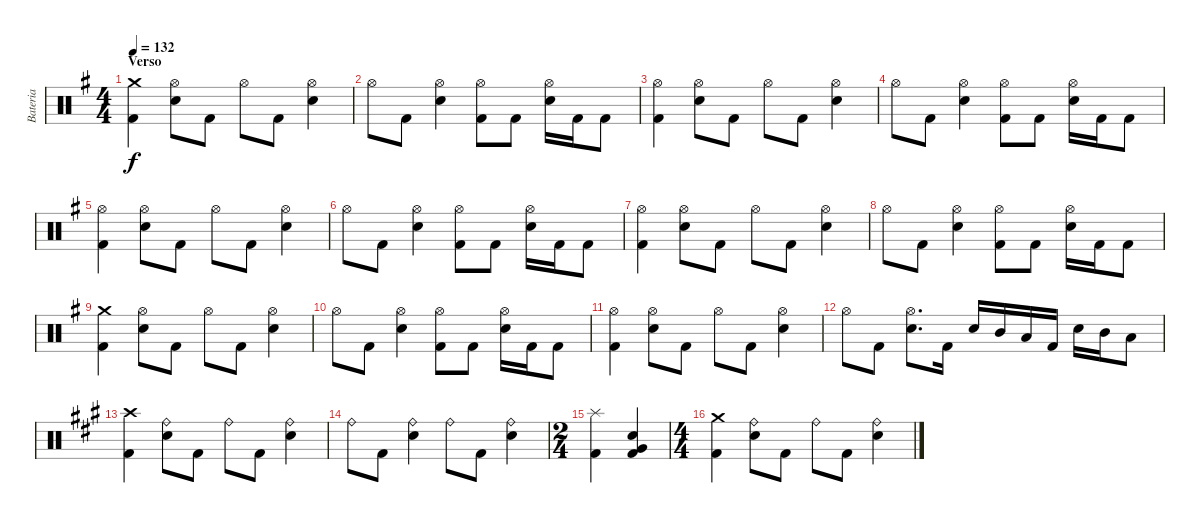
\track ("Bateria" "Bateria") {instrument percussion}
\staff {score}
\articulation defaults
\ts (4 4)
\section ("" "Verso")
\tempo 132
\clef neutral
\ks eminor
("Crash medium (hit)" "Kick (hit) 2").4{dy f} ("Hi-Hat (open)" "Electric Snare (hit)").8 "Kick (hit) 2".8 "Hi-Hat (open)".8 "Kick (hit) 2".8 ("Hi-Hat (open)" "Electric Snare (hit)").4 |
"Hi-Hat (open)".8 "Kick (hit) 2".8 ("Hi-Hat (open)" "Electric Snare (hit)").4 ("Hi-Hat (open)" "Kick (hit) 2").8 "Kick (hit) 2".8 ("Hi-Hat (open)" "Electric Snare (hit)").16 "Kick (hit) 2".16 "Kick (hit) 2".8 |
("Hi-Hat (open)" "Kick (hit) 2").4 ("Hi-Hat (open)" "Electric Snare (hit)").8 "Kick (hit) 2".8 "Hi-Hat (open)".8 "Kick (hit) 2".8 ("Hi-Hat (open)" "Electric Snare (hit)").4 |
"Hi-Hat (open)".8 "Kick (hit) 2".8 ("Hi-Hat (open)" "Electric Snare (hit)").4 ("Hi-Hat (open)" "Kick (hit) 2").8 "Kick (hit) 2".8 ("Hi-Hat (open)" "Electric Snare (hit)").16 "Kick (hit) 2".16 "Kick (hit) 2".8 |
("Hi-Hat (open)" "Kick (hit) 2").4 ("Hi-Hat (open)" "Electric Snare (hit)").8 "Kick (hit) 2".8 "Hi-Hat (open)".8 "Kick (hit) 2".8 ("Hi-Hat (open)" "Electric Snare (hit)").4 |
"Hi-Hat (open)".8 "Kick (hit) 2".8 ("Hi-Hat (open)" "Electric Snare (hit)").4 ("Hi-Hat (open)" "Kick (hit) 2").8 "Kick (hit) 2".8 ("Hi-Hat (open)" "Electric Snare (hit)").16 "Kick (hit) 2".16 "Kick (hit) 2".8 |
("Hi-Hat (open)" "Kick (hit) 2").4 ("Hi-Hat (open)" "Electric Snare (hit)").8 "Kick (hit) 2".8 "Hi-Hat (open)".8 "Kick (hit) 2".8 ("Hi-Hat (open)" "Electric Snare (hit)").4 |
"Hi-Hat (open)".8 "Kick (hit) 2".8 ("Hi-Hat (open)" "Electric Snare (hit)").4 ("Hi-Hat (open)" "Kick (hit) 2").8 "Kick (hit) 2".8 ("Hi-Hat (open)" "Electric Snare (hit)").16 "Kick (hit) 2".16 "Kick (hit) 2".8 |
("Crash medium (hit)" "Kick (hit) 2").4 ("Hi-Hat (open)" "Electric Snare (hit)").8 "Kick (hit) 2".8 "Hi-Hat (open)".8 "Kick (hit) 2".8 ("Hi-Hat (open)" "Electric Snare (hit)").4 |
"Hi-Hat (open)".8 "Kick (hit) 2".8 ("Hi-Hat (open)" "Electric Snare (hit)").4 ("Hi-Hat (open)" "Kick (hit) 2").8 "Kick (hit) 2".8 ("Hi-Hat (open)" "Electric Snare (hit)").16 "Kick (hit) 2".16 "Kick (hit) 2".8 |
("Hi-Hat (open)" "Kick (hit) 2").4 ("Hi-Hat (open)" "Electric Snare (hit)").8 "Kick (hit) 2".8 "Hi-Hat (open)".8 "Kick (hit) 2".8 ("Hi-Hat (open)" "Electric Snare (hit)").4 |
"Hi-Hat (open)".8 "Kick (hit) 2".8 ("Hi-Hat (open)" "Electric Snare (hit)").8{d} "Kick (hit) 2".16 "Electric Snare (hit)".16 "Mid Tom (hit)".16 "Low Tom (hit)".16 "Kick (hit) 2".16 "Electric Snare (hit)".16 "Mid Tom (hit)".16 "Low Tom (hit)".8 |
\ks f#minor
("Crash high (hit)" "Kick (hit) 2").4 ("Ride (bell)" "Electric Snare (hit)").8 "Kick (hit) 2".8 "Ride (bell)".8 "Kick (hit) 2".8 ("Ride (bell)" "Electric Snare (hit)").4 |
"Ride (bell)".8 "Kick (hit) 2".8 ("Ride (bell)" "Electric Snare (hit)").4 "Ride (bell)".8 "Kick (hit) 2".8 ("Ride (bell)" "Electric Snare (hit)").4 |
\ts (2 4)
("Splash (hit)" "Kick (hit) 2").4 ("Electric Snare (hit)" "Very Low Tom (hit)" "Kick (hit) 2").4 |
\ts (4 4)
("Crash medium (hit)" "Kick (hit) 2").4 ("Ride (bell)" "Electric Snare (hit)").8 "Kick (hit) 2".8 "Ride (bell)".8 "Kick (hit) 2".8 ("Ride (bell)" "Electric Snare (hit)").4
